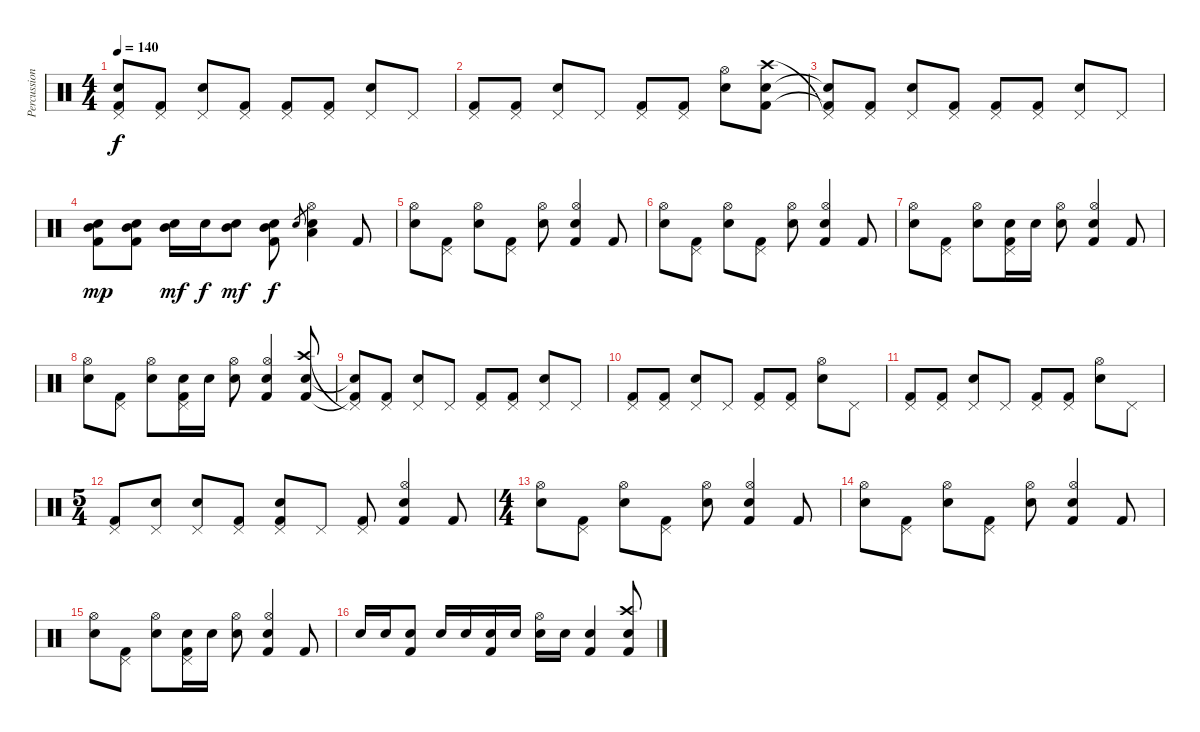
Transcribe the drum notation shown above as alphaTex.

\track ("Percussions" "Percussion") {instrument percussion}
\staff {score}
\articulation defaults
\ts (4 4)
\tempo 140
\clef neutral
\ks c
("Pedal Hi-Hat (hit)"{t} "Snare (hit)"{t} "Kick (hit) 2"{t}).8{dy f} ("Pedal Hi-Hat (hit)" "Kick (hit) 2").8 ("Pedal Hi-Hat (hit)" "Snare (hit) 2").8 ("Pedal Hi-Hat (hit)" "Kick (hit) 2").8 ("Pedal Hi-Hat (hit)" "Kick (hit) 2").8 ("Pedal Hi-Hat (hit)" "Kick (hit) 2").8 ("Pedal Hi-Hat (hit)" "Snare (hit) 2").8 "Pedal Hi-Hat (hit)".8 |
("Pedal Hi-Hat (hit)" "Kick (hit) 2").8 ("Pedal Hi-Hat (hit)" "Kick (hit) 2").8 ("Pedal Hi-Hat (hit)" "Snare (hit) 2").8 "Pedal Hi-Hat (hit)".8 ("Pedal Hi-Hat (hit)" "Kick (hit) 2").8 ("Pedal Hi-Hat (hit)" "Kick (hit) 2").8 ("Hi-Hat (open)" "Snare (hit) 2").8 ("Crash high (hit)" "Electric Snare (hit)" "Kick (hit) 2").8 |
("Pedal Hi-Hat (hit)"{t} "Snare (hit)"{t} "Kick (hit) 2"{t}).8 ("Pedal Hi-Hat (hit)" "Kick (hit) 2").8 ("Pedal Hi-Hat (hit)" "Snare (hit) 2").8 ("Pedal Hi-Hat (hit)" "Kick (hit) 2").8 ("Pedal Hi-Hat (hit)" "Kick (hit) 2").8 ("Pedal Hi-Hat (hit)" "Kick (hit) 2").8 ("Pedal Hi-Hat (hit)" "Snare (hit) 2").8 "Pedal Hi-Hat (hit)".8 |
("Mid Tom (hit)" "Snare (hit) 2" "Kick (hit) 2").8{dy mp} ("Mid Tom (hit)" "Snare (hit) 2" "Kick (hit) 2").8 ("Mid Tom (hit)" "Snare (hit) 2").16{dy mf} "Snare (hit) 2".16{dy f} ("Mid Tom (hit)" "Snare (hit) 2").8{dy mf} ("Mid Tom (hit)" "Snare (hit) 2" "Kick (hit) 2").8{dy f} "Snare (hit) 2".8{gr} ("Hi-Hat (open)" "Low Tom (hit)" "Electric Snare (hit)").4 "Kick (hit) 2".8 |
("Hi-Hat (open)" "Snare (hit) 2").8 ("Pedal Hi-Hat (hit)" "Kick (hit) 2").8 ("Hi-Hat (open)" "Snare (hit) 2").8 ("Pedal Hi-Hat (hit)" "Kick (hit) 2").8 ("Hi-Hat (open)" "Snare (hit) 2").8 ("Hi-Hat (open)" "Electric Snare (hit)" "Kick (hit) 2").4 "Kick (hit) 2".8 |
("Hi-Hat (open)" "Snare (hit) 2").8 ("Pedal Hi-Hat (hit)" "Kick (hit) 2").8 ("Hi-Hat (open)" "Snare (hit) 2").8 ("Pedal Hi-Hat (hit)" "Kick (hit) 2").8 ("Hi-Hat (open)" "Snare (hit) 2").8 ("Hi-Hat (open)" "Electric Snare (hit)" "Kick (hit) 2").4 "Kick (hit) 2".8 |
("Hi-Hat (open)" "Snare (hit) 2").8 ("Pedal Hi-Hat (hit)" "Kick (hit) 2").8 ("Hi-Hat (open)" "Snare (hit) 2").8 ("Pedal Hi-Hat (hit)" "Snare (hit) 2" "Kick (hit) 2").16 "Snare (hit) 2".16 ("Hi-Hat (open)" "Snare (hit) 2").8 ("Hi-Hat (open)" "Electric Snare (hit)" "Kick (hit) 2").4 "Kick (hit) 2".8 |
("Hi-Hat (open)" "Snare (hit) 2").8 ("Pedal Hi-Hat (hit)" "Kick (hit) 2").8 ("Hi-Hat (open)" "Snare (hit) 2").8 ("Pedal Hi-Hat (hit)" "Snare (hit) 2" "Kick (hit) 2").16 "Snare (hit) 2".16 ("Hi-Hat (open)" "Snare (hit) 2").8 ("Hi-Hat (open)" "Electric Snare (hit)" "Kick (hit) 2").4 ("Crash high (hit)" "Electric Snare (hit)" "Kick (hit) 2").8 |
("Pedal Hi-Hat (hit)"{t} "Snare (hit)"{t} "Kick (hit) 2"{t}).8 ("Pedal Hi-Hat (hit)" "Kick (hit) 2").8 ("Pedal Hi-Hat (hit)" "Snare (hit) 2").8 "Pedal Hi-Hat (hit)".8 ("Pedal Hi-Hat (hit)" "Kick (hit) 2").8 ("Pedal Hi-Hat (hit)" "Kick (hit) 2").8 ("Pedal Hi-Hat (hit)" "Snare (hit) 2").8 "Pedal Hi-Hat (hit)".8 |
("Pedal Hi-Hat (hit)" "Kick (hit) 2").8 ("Pedal Hi-Hat (hit)" "Kick (hit) 2").8 ("Pedal Hi-Hat (hit)" "Snare (hit) 2").8 "Pedal Hi-Hat (hit)".8 ("Pedal Hi-Hat (hit)" "Kick (hit) 2").8 ("Pedal Hi-Hat (hit)" "Kick (hit) 2").8 ("Hi-Hat (open)" "Snare (hit) 2").8 "Pedal Hi-Hat (hit)".8 |
("Pedal Hi-Hat (hit)" "Kick (hit) 2").8 ("Pedal Hi-Hat (hit)" "Kick (hit) 2").8 ("Pedal Hi-Hat (hit)" "Snare (hit) 2").8 "Pedal Hi-Hat (hit)".8 ("Pedal Hi-Hat (hit)" "Kick (hit) 2").8 ("Pedal Hi-Hat (hit)" "Kick (hit) 2").8 ("Hi-Hat (open)" "Snare (hit) 2").8 "Pedal Hi-Hat (hit)".8 |
\ts (5 4)
("Pedal Hi-Hat (hit)" "Kick (hit) 2").8 ("Pedal Hi-Hat (hit)" "Snare (hit) 2").8 ("Pedal Hi-Hat (hit)" "Snare (hit) 2").8 ("Pedal Hi-Hat (hit)" "Kick (hit) 2").8 ("Pedal Hi-Hat (hit)" "Snare (hit) 2" "Kick (hit) 2").8 "Pedal Hi-Hat (hit)".8 ("Pedal Hi-Hat (hit)" "Kick (hit) 2").8 ("Hi-Hat (open)" "Electric Snare (hit)" "Kick (hit) 2").4 "Kick (hit) 2".8 |
\ts (4 4)
("Hi-Hat (open)" "Snare (hit) 2").8 ("Pedal Hi-Hat (hit)" "Kick (hit) 2").8 ("Hi-Hat (open)" "Snare (hit) 2").8 ("Pedal Hi-Hat (hit)" "Kick (hit) 2").8 ("Hi-Hat (open)" "Snare (hit) 2").8 ("Hi-Hat (open)" "Electric Snare (hit)" "Kick (hit) 2").4 "Kick (hit) 2".8 |
("Hi-Hat (open)" "Snare (hit) 2").8 ("Pedal Hi-Hat (hit)" "Kick (hit) 2").8 ("Hi-Hat (open)" "Snare (hit) 2").8 ("Pedal Hi-Hat (hit)" "Kick (hit) 2").8 ("Hi-Hat (open)" "Snare (hit) 2").8 ("Hi-Hat (open)" "Electric Snare (hit)" "Kick (hit) 2").4 "Kick (hit) 2".8 |
("Hi-Hat (open)" "Snare (hit) 2").8 ("Pedal Hi-Hat (hit)" "Kick (hit) 2").8 ("Hi-Hat (open)" "Snare (hit) 2").8 ("Pedal Hi-Hat (hit)" "Snare (hit) 2" "Kick (hit) 2").16 "Snare (hit) 2".16 ("Hi-Hat (open)" "Snare (hit) 2").8 ("Hi-Hat (open)" "Electric Snare (hit)" "Kick (hit) 2").4 "Kick (hit) 2".8 |
"Snare (hit) 2".16 "Snare (hit) 2".16 ("Snare (hit) 2" "Kick (hit) 2").8 "Snare (hit) 2".16 "Snare (hit) 2".16 ("Snare (hit) 2" "Kick (hit) 2").16 "Snare (hit) 2".16 ("Hi-Hat (open)" "Snare (hit) 2").16 "Snare (hit) 2".16 ("Electric Snare (hit)" "Kick (hit) 2").4 ("Crash high (hit)" "Electric Snare (hit)" "Kick (hit) 2").8
